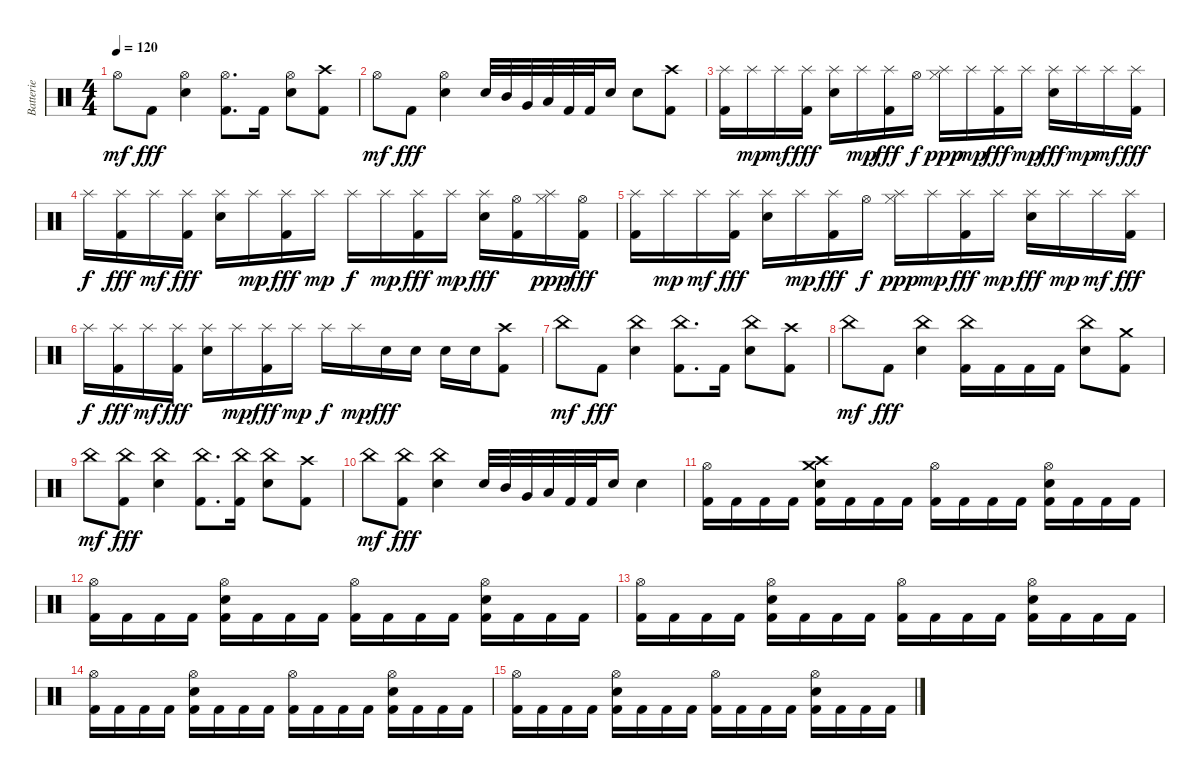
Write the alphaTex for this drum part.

\track ("Batterie" "Batterie") {instrument percussion}
\staff {score}
\articulation defaults
\ts (4 4)
\tempo 120
\clef neutral
\ks c "Hi-Hat (open)".8{dy mf} "Kick (hit) 2".8{dy fff}
("Hi-Hat (open)" "Electric Snare (hit)").4 ("Hi-Hat (open)" "Kick (hit) 2").8{d} "Kick (hit) 2".16 ("Hi-Hat (open)" "Electric Snare (hit)").8 ("Crash high (hit)" "Kick (hit) 2").8 |
"Hi-Hat (open)".8{dy mf} "Kick (hit) 2".8{dy fff} ("Hi-Hat (open)" "Electric Snare (hit)").4 "Electric Snare (hit)".32 "Mid Tom (hit)".32 "Very Low Tom (hit)".32 "Low Floor Tom (hit)".32 "Kick (hit) 2".32 "Kick (hit) 2".32 "Electric Snare (hit)".16 "Electric Snare (hit)".8 ("Crash high (hit)" "Kick (hit) 2").8 |
("Splash (hit)" "Kick (hit) 2").16 "Splash (hit)".16{dy mp} "Splash (hit)".16{dy mf} ("Splash (hit)" "Kick (hit) 2").16{dy fff} ("Splash (hit)" "Electric Snare (hit)").16 "Splash (hit)".16{dy mp} ("Splash (hit)" "Kick (hit) 2").16{dy fff} "Hi-Hat (open)".16{dy f} ("Splash (hit)" "Hi-Hat (closed)").16{dy ppp} "Splash (hit)".16{dy mp} ("Splash (hit)" "Kick (hit) 2").16{dy fff} "Splash (hit)".16{dy mp} ("Splash (hit)" "Electric Snare (hit)").16{dy fff} "Splash (hit)".16{dy mp} "Splash (hit)".16{dy mf} ("Splash (hit)" "Kick (hit) 2").16{dy fff} |
"Splash (hit)".16{dy f} ("Splash (hit)" "Kick (hit) 2").16{dy fff} "Splash (hit)".16{dy mf} ("Splash (hit)" "Kick (hit) 2").16{dy fff} ("Splash (hit)" "Electric Snare (hit)").16 "Splash (hit)".16{dy mp} ("Splash (hit)" "Kick (hit) 2").16{dy fff} "Splash (hit)".16{dy mp} "Splash (hit)".16{dy f} "Splash (hit)".16{dy mp} ("Splash (hit)" "Kick (hit) 2").16{dy fff} "Splash (hit)".16{dy mp} ("Splash (hit)" "Electric Snare (hit)").16{dy fff} ("Hi-Hat (open)" "Kick (hit) 2").16 ("Splash (hit)" "Hi-Hat (closed)").16{dy ppp} ("Hi-Hat (open)" "Kick (hit) 2").16{dy fff} |
("Splash (hit)" "Kick (hit) 2").16 "Splash (hit)".16{dy mp} "Splash (hit)".16{dy mf} ("Splash (hit)" "Kick (hit) 2").16{dy fff} ("Splash (hit)" "Electric Snare (hit)").16 "Splash (hit)".16{dy mp} ("Splash (hit)" "Kick (hit) 2").16{dy fff} "Hi-Hat (open)".16{dy f} ("Splash (hit)" "Hi-Hat (closed)").16{dy ppp} "Splash (hit)".16{dy mp} ("Splash (hit)" "Kick (hit) 2").16{dy fff} "Splash (hit)".16{dy mp} ("Splash (hit)" "Electric Snare (hit)").16{dy fff} "Splash (hit)".16{dy mp} "Splash (hit)".16{dy mf} ("Splash (hit)" "Kick (hit) 2").16{dy fff} |
"Splash (hit)".16{dy f} ("Splash (hit)" "Kick (hit) 2").16{dy fff} "Splash (hit)".16{dy mf} ("Splash (hit)" "Kick (hit) 2").16{dy fff} ("Splash (hit)" "Electric Snare (hit)").16 "Splash (hit)".16{dy mp} ("Splash (hit)" "Kick (hit) 2").16{dy fff} "Splash (hit)".16{dy mp} "Splash (hit)".16{dy f} "Splash (hit)".16{dy mp} "Electric Snare (hit)".16{dy fff} "Electric Snare (hit)".16 "Electric Snare (hit)".16 "Electric Snare (hit)".16 ("Crash high (hit)" "Kick (hit) 2").8 |
"China (hit)".8{dy mf} "Kick (hit) 2".8{dy fff} ("China (hit)" "Electric Snare (hit)").4 ("China (hit)" "Kick (hit) 2").8{d} "Kick (hit) 2".16 ("China (hit)" "Electric Snare (hit)").8 ("Crash high (hit)" "Kick (hit) 2").8 |
"China (hit)".8{dy mf} "Kick (hit) 2".8{dy fff} ("China (hit)" "Electric Snare (hit)").4 ("China (hit)" "Kick (hit) 2").16 "Kick (hit) 2".16 "Kick (hit) 2".16 "Kick (hit) 2".16 ("China (hit)" "Electric Snare (hit)").8 ("Crash medium (hit)" "Kick (hit) 2").8 |
"China (hit)".8{dy mf} ("China (hit)" "Kick (hit) 2").8{dy fff} ("China (hit)" "Electric Snare (hit)").4 ("China (hit)" "Kick (hit) 2").8{d} ("China (hit)" "Kick (hit) 2").16 ("China (hit)" "Electric Snare (hit)").8 ("Crash high (hit)" "Kick (hit) 2").8 |
"China (hit)".8{dy mf} ("China (hit)" "Kick (hit) 2").8{dy fff} ("China (hit)" "Electric Snare (hit)").4 "Electric Snare (hit)".32 "Mid Tom (hit)".32 "Very Low Tom (hit)".32 "Low Floor Tom (hit)".32 "Kick (hit) 2".32 "Kick (hit) 2".32 "Electric Snare (hit)".16 "Electric Snare (hit)".4 |
("Hi-Hat (open)" "Kick (hit) 2").16 "Kick (hit) 2".16 "Kick (hit) 2".16 "Kick (hit) 2".16 ("Crash medium (hit)" "Crash high (hit)" "Electric Snare (hit)" "Kick (hit) 2").16 "Kick (hit) 2".16 "Kick (hit) 2".16 "Kick (hit) 2".16 ("Hi-Hat (open)" "Kick (hit) 2").16 "Kick (hit) 2".16 "Kick (hit) 2".16 "Kick (hit) 2".16 ("Hi-Hat (open)" "Electric Snare (hit)" "Kick (hit) 2").16 "Kick (hit) 2".16 "Kick (hit) 2".16 "Kick (hit) 2".16 |
("Hi-Hat (open)" "Kick (hit) 2").16 "Kick (hit) 2".16 "Kick (hit) 2".16 "Kick (hit) 2".16 ("Hi-Hat (open)" "Electric Snare (hit)" "Kick (hit) 2").16 "Kick (hit) 2".16 "Kick (hit) 2".16 "Kick (hit) 2".16 ("Hi-Hat (open)" "Kick (hit) 2").16 "Kick (hit) 2".16 "Kick (hit) 2".16 "Kick (hit) 2".16 ("Hi-Hat (open)" "Electric Snare (hit)" "Kick (hit) 2").16 "Kick (hit) 2".16 "Kick (hit) 2".16 "Kick (hit) 2".16 |
("Hi-Hat (open)" "Kick (hit) 2").16 "Kick (hit) 2".16 "Kick (hit) 2".16 "Kick (hit) 2".16 ("Hi-Hat (open)" "Electric Snare (hit)" "Kick (hit) 2").16 "Kick (hit) 2".16 "Kick (hit) 2".16 "Kick (hit) 2".16 ("Hi-Hat (open)" "Kick (hit) 2").16 "Kick (hit) 2".16 "Kick (hit) 2".16 "Kick (hit) 2".16 ("Hi-Hat (open)" "Electric Snare (hit)" "Kick (hit) 2").16 "Kick (hit) 2".16 "Kick (hit) 2".16 "Kick (hit) 2".16 |
("Hi-Hat (open)" "Kick (hit) 2").16 "Kick (hit) 2".16 "Kick (hit) 2".16 "Kick (hit) 2".16 ("Hi-Hat (open)" "Electric Snare (hit)" "Kick (hit) 2").16 "Kick (hit) 2".16 "Kick (hit) 2".16 "Kick (hit) 2".16 ("Hi-Hat (open)" "Kick (hit) 2").16 "Kick (hit) 2".16 "Kick (hit) 2".16 "Kick (hit) 2".16 ("Hi-Hat (open)" "Electric Snare (hit)" "Kick (hit) 2").16 "Kick (hit) 2".16 "Kick (hit) 2".16 "Kick (hit) 2".16 |
("Hi-Hat (open)" "Kick (hit) 2").16 "Kick (hit) 2".16 "Kick (hit) 2".16 "Kick (hit) 2".16 ("Hi-Hat (open)" "Electric Snare (hit)" "Kick (hit) 2").16 "Kick (hit) 2".16 "Kick (hit) 2".16 "Kick (hit) 2".16 ("Hi-Hat (open)" "Kick (hit) 2").16 "Kick (hit) 2".16 "Kick (hit) 2".16 "Kick (hit) 2".16 ("Hi-Hat (open)" "Electric Snare (hit)" "Kick (hit) 2").16 "Kick (hit) 2".16 "Kick (hit) 2".16 "Kick (hit) 2".16
